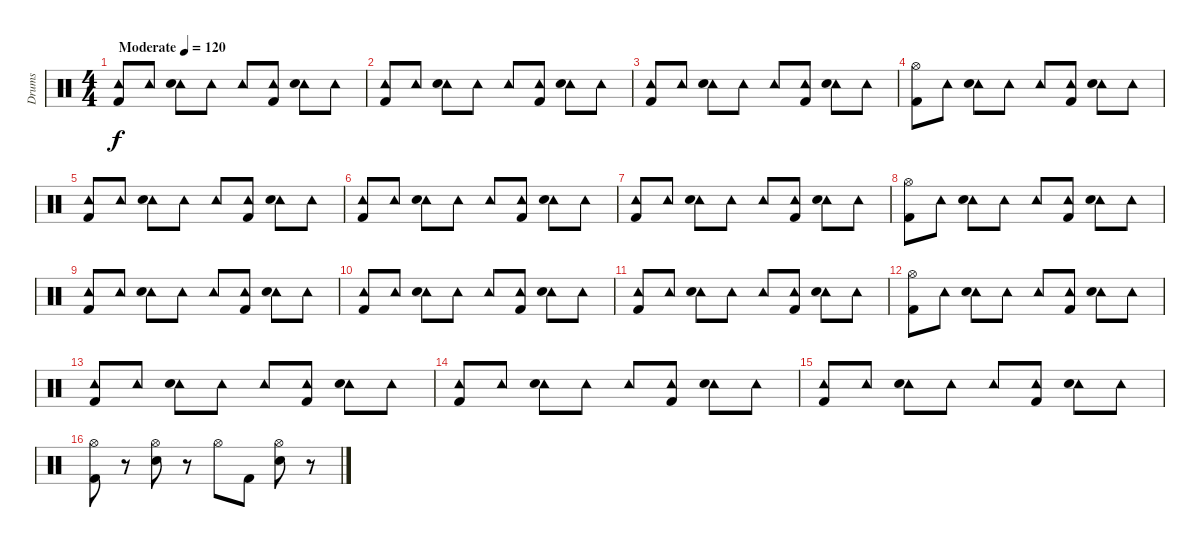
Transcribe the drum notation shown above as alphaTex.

\track ("Drums" "Drums") {instrument percussion}
\staff {score}
\articulation defaults
\ts (4 4)
\tempo (120 "Moderate")
\clef neutral
\ks c
("Tambourine (hit)" "Kick (hit) 2").8{dy f} "Tambourine (hit)".8 ("Tambourine (hit)" "Hand Clap (hit)").8 "Tambourine (hit)".8 "Tambourine (hit)".8 ("Tambourine (hit)" "Kick (hit) 2").8 ("Tambourine (hit)" "Hand Clap (hit)").8 "Tambourine (hit)".8 |
("Tambourine (hit)" "Kick (hit) 2").8 "Tambourine (hit)".8 ("Tambourine (hit)" "Hand Clap (hit)").8 "Tambourine (hit)".8 "Tambourine (hit)".8 ("Tambourine (hit)" "Kick (hit) 2").8 ("Tambourine (hit)" "Hand Clap (hit)").8 "Tambourine (hit)".8 |
("Tambourine (hit)" "Kick (hit) 2").8 "Tambourine (hit)".8 ("Tambourine (hit)" "Hand Clap (hit)").8 "Tambourine (hit)".8 "Tambourine (hit)".8 ("Tambourine (hit)" "Kick (hit) 2").8 ("Tambourine (hit)" "Hand Clap (hit)").8 "Tambourine (hit)".8 |
("Hi-Hat (open)" "Kick (hit) 2").8 "Tambourine (hit)".8 ("Tambourine (hit)" "Hand Clap (hit)").8 "Tambourine (hit)".8 "Tambourine (hit)".8 ("Tambourine (hit)" "Kick (hit) 2").8 ("Tambourine (hit)" "Hand Clap (hit)").8 "Tambourine (hit)".8 |
("Tambourine (hit)" "Kick (hit) 2").8 "Tambourine (hit)".8 ("Tambourine (hit)" "Hand Clap (hit)").8 "Tambourine (hit)".8 "Tambourine (hit)".8 ("Tambourine (hit)" "Kick (hit) 2").8 ("Tambourine (hit)" "Hand Clap (hit)").8 "Tambourine (hit)".8 |
("Tambourine (hit)" "Kick (hit) 2").8 "Tambourine (hit)".8 ("Tambourine (hit)" "Hand Clap (hit)").8 "Tambourine (hit)".8 "Tambourine (hit)".8 ("Tambourine (hit)" "Kick (hit) 2").8 ("Tambourine (hit)" "Hand Clap (hit)").8 "Tambourine (hit)".8 |
("Tambourine (hit)" "Kick (hit) 2").8 "Tambourine (hit)".8 ("Tambourine (hit)" "Hand Clap (hit)").8 "Tambourine (hit)".8 "Tambourine (hit)".8 ("Tambourine (hit)" "Kick (hit) 2").8 ("Tambourine (hit)" "Hand Clap (hit)").8 "Tambourine (hit)".8 |
("Hi-Hat (open)" "Kick (hit) 2").8 "Tambourine (hit)".8 ("Tambourine (hit)" "Hand Clap (hit)").8 "Tambourine (hit)".8 "Tambourine (hit)".8 ("Tambourine (hit)" "Kick (hit) 2").8 ("Tambourine (hit)" "Hand Clap (hit)").8 "Tambourine (hit)".8 |
("Tambourine (hit)" "Kick (hit) 2").8 "Tambourine (hit)".8 ("Tambourine (hit)" "Hand Clap (hit)").8 "Tambourine (hit)".8 "Tambourine (hit)".8 ("Tambourine (hit)" "Kick (hit) 2").8 ("Tambourine (hit)" "Hand Clap (hit)").8 "Tambourine (hit)".8 |
("Tambourine (hit)" "Kick (hit) 2").8 "Tambourine (hit)".8 ("Tambourine (hit)" "Hand Clap (hit)").8 "Tambourine (hit)".8 "Tambourine (hit)".8 ("Tambourine (hit)" "Kick (hit) 2").8 ("Tambourine (hit)" "Hand Clap (hit)").8 "Tambourine (hit)".8 |
("Tambourine (hit)" "Kick (hit) 2").8 "Tambourine (hit)".8 ("Tambourine (hit)" "Hand Clap (hit)").8 "Tambourine (hit)".8 "Tambourine (hit)".8 ("Tambourine (hit)" "Kick (hit) 2").8 ("Tambourine (hit)" "Hand Clap (hit)").8 "Tambourine (hit)".8 |
("Hi-Hat (open)" "Kick (hit) 2").8 "Tambourine (hit)".8 ("Tambourine (hit)" "Hand Clap (hit)").8 "Tambourine (hit)".8 "Tambourine (hit)".8 ("Tambourine (hit)" "Kick (hit) 2").8 ("Tambourine (hit)" "Hand Clap (hit)").8 "Tambourine (hit)".8 |
("Tambourine (hit)" "Kick (hit) 2").8 "Tambourine (hit)".8 ("Tambourine (hit)" "Hand Clap (hit)").8 "Tambourine (hit)".8 "Tambourine (hit)".8 ("Tambourine (hit)" "Kick (hit) 2").8 ("Tambourine (hit)" "Hand Clap (hit)").8 "Tambourine (hit)".8 |
("Tambourine (hit)" "Kick (hit) 2").8 "Tambourine (hit)".8 ("Tambourine (hit)" "Hand Clap (hit)").8 "Tambourine (hit)".8 "Tambourine (hit)".8 ("Tambourine (hit)" "Kick (hit) 2").8 ("Tambourine (hit)" "Hand Clap (hit)").8 "Tambourine (hit)".8 |
("Tambourine (hit)" "Kick (hit) 2").8 "Tambourine (hit)".8 ("Tambourine (hit)" "Hand Clap (hit)").8 "Tambourine (hit)".8 "Tambourine (hit)".8 ("Tambourine (hit)" "Kick (hit) 2").8 ("Tambourine (hit)" "Hand Clap (hit)").8 "Tambourine (hit)".8 |
("Hi-Hat (open)" "Kick (hit) 2").8 r.8 ("Hi-Hat (open)" "Hand Clap (hit)").8 r.8 "Hi-Hat (open)".8 "Kick (hit) 2".8 ("Hi-Hat (open)" "Hand Clap (hit)").8 r.8
